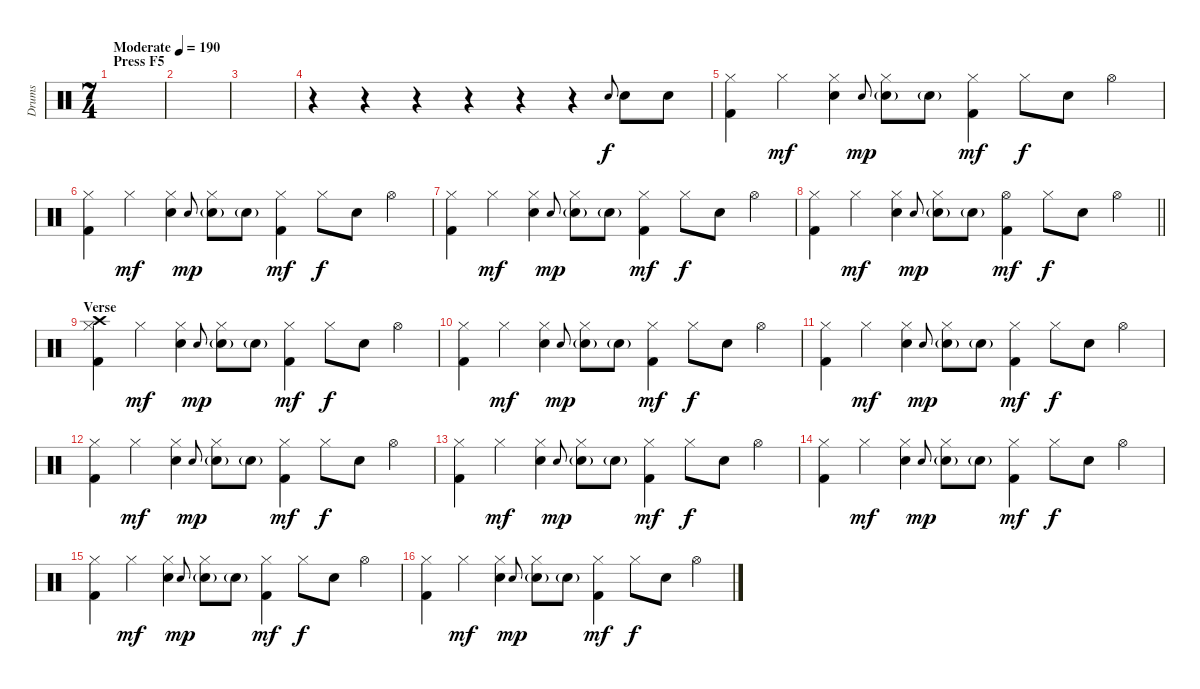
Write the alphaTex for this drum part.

\track ("Drums" "Drums") {instrument percussion}
\staff {score}
\articulation defaults
\ts (7 4)
\section ("" "Press F5")
\tempo (190 "Moderate")
\clef neutral
\ks c
|
|
|
r.4 r.4 r.4 r.4 r.4 r.4 "Electric Snare (hit)".8{gr onbeat} "Electric Snare (hit)".8 "Electric Snare (hit)".8 |
("Hi-Hat (closed)" "Kick (hit) 2").4{dy f} "Hi-Hat (closed)".4{dy mf} ("Hi-Hat (closed)" "Electric Snare (hit)").4 "Electric Snare (hit)".8{gr onbeat dy mp} ("Hi-Hat (closed)" "Electric Snare (hit)"{g}).8 "Electric Snare (hit)"{g}.8 ("Hi-Hat (closed)" "Kick (hit) 2").4{dy mf} "Hi-Hat (closed)".8{dy f} "Electric Snare (hit)".8 "Hi-Hat (open)".4 |
("Hi-Hat (closed)" "Kick (hit) 2").4 "Hi-Hat (closed)".4{dy mf} ("Hi-Hat (closed)" "Electric Snare (hit)").4 "Electric Snare (hit)".8{gr onbeat dy mp} ("Hi-Hat (closed)" "Electric Snare (hit)"{g}).8 "Electric Snare (hit)"{g}.8 ("Hi-Hat (closed)" "Kick (hit) 2").4{dy mf} "Hi-Hat (closed)".8{dy f} "Electric Snare (hit)".8 "Hi-Hat (open)".4 |
("Hi-Hat (closed)" "Kick (hit) 2").4 "Hi-Hat (closed)".4{dy mf} ("Hi-Hat (closed)" "Electric Snare (hit)").4 "Electric Snare (hit)".8{gr onbeat dy mp} ("Hi-Hat (closed)" "Electric Snare (hit)"{g}).8 "Electric Snare (hit)"{g}.8 ("Hi-Hat (closed)" "Kick (hit) 2").4{dy mf} "Hi-Hat (closed)".8{dy f} "Electric Snare (hit)".8 "Hi-Hat (open)".4 |
\barLineRight lightlight
("Hi-Hat (closed)" "Kick (hit) 2").4 "Hi-Hat (closed)".4{dy mf} ("Hi-Hat (closed)" "Electric Snare (hit)").4 "Electric Snare (hit)".8{gr onbeat dy mp} ("Hi-Hat (closed)" "Electric Snare (hit)"{g}).8 "Electric Snare (hit)"{g}.8 ("Hi-Hat (open)" "Kick (hit) 2").4{dy mf} "Hi-Hat (closed)".8{dy f} "Electric Snare (hit)".8 "Hi-Hat (open)".4 |
\section ("" "Verse")
("Crash high (hit)" "Hi-Hat (closed)" "Kick (hit) 2").4 "Hi-Hat (closed)".4{dy mf} ("Hi-Hat (closed)" "Electric Snare (hit)").4 "Electric Snare (hit)".8{gr onbeat dy mp} ("Hi-Hat (closed)" "Electric Snare (hit)"{g}).8 "Electric Snare (hit)"{g}.8 ("Hi-Hat (closed)" "Kick (hit) 2").4{dy mf} "Hi-Hat (closed)".8{dy f} "Electric Snare (hit)".8 "Hi-Hat (open)".4 |
("Hi-Hat (closed)" "Kick (hit) 2").4 "Hi-Hat (closed)".4{dy mf} ("Hi-Hat (closed)" "Electric Snare (hit)").4 "Electric Snare (hit)".8{gr onbeat dy mp} ("Hi-Hat (closed)" "Electric Snare (hit)"{g}).8 "Electric Snare (hit)"{g}.8 ("Hi-Hat (closed)" "Kick (hit) 2").4{dy mf} "Hi-Hat (closed)".8{dy f} "Electric Snare (hit)".8 "Hi-Hat (open)".4 |
("Hi-Hat (closed)" "Kick (hit) 2").4 "Hi-Hat (closed)".4{dy mf} ("Hi-Hat (closed)" "Electric Snare (hit)").4 "Electric Snare (hit)".8{gr onbeat dy mp} ("Hi-Hat (closed)" "Electric Snare (hit)"{g}).8 "Electric Snare (hit)"{g}.8 ("Hi-Hat (closed)" "Kick (hit) 2").4{dy mf} "Hi-Hat (closed)".8{dy f} "Electric Snare (hit)".8 "Hi-Hat (open)".4 |
("Hi-Hat (closed)" "Kick (hit) 2").4 "Hi-Hat (closed)".4{dy mf} ("Hi-Hat (closed)" "Electric Snare (hit)").4 "Electric Snare (hit)".8{gr onbeat dy mp} ("Hi-Hat (closed)" "Electric Snare (hit)"{g}).8 "Electric Snare (hit)"{g}.8 ("Hi-Hat (closed)" "Kick (hit) 2").4{dy mf} "Hi-Hat (closed)".8{dy f} "Electric Snare (hit)".8 "Hi-Hat (open)".4 |
("Hi-Hat (closed)" "Kick (hit) 2").4 "Hi-Hat (closed)".4{dy mf} ("Hi-Hat (closed)" "Electric Snare (hit)").4 "Electric Snare (hit)".8{gr onbeat dy mp} ("Hi-Hat (closed)" "Electric Snare (hit)"{g}).8 "Electric Snare (hit)"{g}.8 ("Hi-Hat (closed)" "Kick (hit) 2").4{dy mf} "Hi-Hat (closed)".8{dy f} "Electric Snare (hit)".8 "Hi-Hat (open)".4 |
("Hi-Hat (closed)" "Kick (hit) 2").4 "Hi-Hat (closed)".4{dy mf} ("Hi-Hat (closed)" "Electric Snare (hit)").4 "Electric Snare (hit)".8{gr onbeat dy mp} ("Hi-Hat (closed)" "Electric Snare (hit)"{g}).8 "Electric Snare (hit)"{g}.8 ("Hi-Hat (closed)" "Kick (hit) 2").4{dy mf} "Hi-Hat (closed)".8{dy f} "Electric Snare (hit)".8 "Hi-Hat (open)".4 |
("Hi-Hat (closed)" "Kick (hit) 2").4 "Hi-Hat (closed)".4{dy mf} ("Hi-Hat (closed)" "Electric Snare (hit)").4 "Electric Snare (hit)".8{gr onbeat dy mp} ("Hi-Hat (closed)" "Electric Snare (hit)"{g}).8 "Electric Snare (hit)"{g}.8 ("Hi-Hat (closed)" "Kick (hit) 2").4{dy mf} "Hi-Hat (closed)".8{dy f} "Electric Snare (hit)".8 "Hi-Hat (open)".4 |
("Hi-Hat (closed)" "Kick (hit) 2").4 "Hi-Hat (closed)".4{dy mf} ("Hi-Hat (closed)" "Electric Snare (hit)").4 "Electric Snare (hit)".8{gr onbeat dy mp} ("Hi-Hat (closed)" "Electric Snare (hit)"{g}).8 "Electric Snare (hit)"{g}.8 ("Hi-Hat (closed)" "Kick (hit) 2").4{dy mf} "Hi-Hat (closed)".8{dy f} "Electric Snare (hit)".8 "Hi-Hat (open)".4
